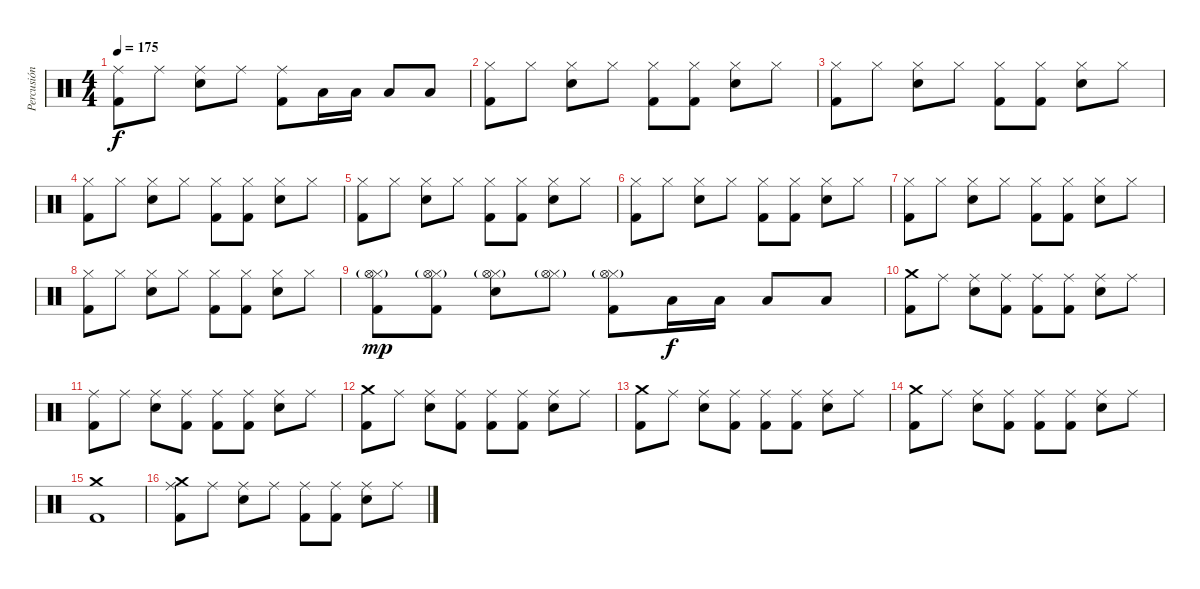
\track ("Percusión" "Percusión") {instrument percussion}
\staff {score}
\articulation defaults
\ts (4 4)
\tempo 175
\clef neutral
\ks c
("Ride (middle)" "Kick (hit) 2").8{dy f} "Ride (middle)".8 ("Ride (middle)" "Electric Snare (hit)").8 "Ride (middle)".8 ("Kick (hit) 2" "Ride (middle)").8 "Low Tom (hit)".16 "Low Floor Tom (hit)".16 "Low Floor Tom (hit)".8 "Low Floor Tom (hit)".8 |
("Hi-Hat (closed)" "Kick (hit) 2").8 "Hi-Hat (closed)".8 ("Hi-Hat (closed)" "Electric Snare (hit)").8 "Hi-Hat (closed)".8 ("Kick (hit) 2" "Hi-Hat (closed)").8 ("Kick (hit) 2" "Hi-Hat (closed)").8 ("Electric Snare (hit)" "Hi-Hat (closed)").8 "Hi-Hat (closed)".8 |
("Hi-Hat (closed)" "Kick (hit) 2").8 "Hi-Hat (closed)".8 ("Hi-Hat (closed)" "Electric Snare (hit)").8 "Hi-Hat (closed)".8 ("Kick (hit) 2" "Hi-Hat (closed)").8 ("Kick (hit) 2" "Hi-Hat (closed)").8 ("Electric Snare (hit)" "Hi-Hat (closed)").8 "Hi-Hat (closed)".8 |
("Hi-Hat (closed)" "Kick (hit) 2").8 "Hi-Hat (closed)".8 ("Hi-Hat (closed)" "Electric Snare (hit)").8 "Hi-Hat (closed)".8 ("Kick (hit) 2" "Hi-Hat (closed)").8 ("Kick (hit) 2" "Hi-Hat (closed)").8 ("Electric Snare (hit)" "Hi-Hat (closed)").8 "Hi-Hat (closed)".8 |
("Hi-Hat (closed)" "Kick (hit) 2").8 "Hi-Hat (closed)".8 ("Hi-Hat (closed)" "Electric Snare (hit)").8 "Hi-Hat (closed)".8 ("Kick (hit) 2" "Hi-Hat (closed)").8 ("Kick (hit) 2" "Hi-Hat (closed)").8 ("Electric Snare (hit)" "Hi-Hat (closed)").8 "Hi-Hat (closed)".8 |
("Hi-Hat (closed)" "Kick (hit) 2").8 "Hi-Hat (closed)".8 ("Hi-Hat (closed)" "Electric Snare (hit)").8 "Hi-Hat (closed)".8 ("Kick (hit) 2" "Hi-Hat (closed)").8 ("Kick (hit) 2" "Hi-Hat (closed)").8 ("Electric Snare (hit)" "Hi-Hat (closed)").8 "Hi-Hat (closed)".8 |
("Hi-Hat (closed)" "Kick (hit) 2").8 "Hi-Hat (closed)".8 ("Hi-Hat (closed)" "Electric Snare (hit)").8 "Hi-Hat (closed)".8 ("Kick (hit) 2" "Hi-Hat (closed)").8 ("Kick (hit) 2" "Hi-Hat (closed)").8 ("Electric Snare (hit)" "Hi-Hat (closed)").8 "Hi-Hat (closed)".8 |
("Hi-Hat (closed)" "Kick (hit) 2").8 "Hi-Hat (closed)".8 ("Hi-Hat (closed)" "Electric Snare (hit)").8 "Hi-Hat (closed)".8 ("Kick (hit) 2" "Hi-Hat (closed)").8 ("Kick (hit) 2" "Hi-Hat (closed)").8 ("Electric Snare (hit)" "Hi-Hat (closed)").8 "Hi-Hat (closed)".8 |
("Hi-Hat (closed)" "Kick (hit) 2" "Hi-Hat (open)"{g}).8{dy mp} ("Hi-Hat (closed)" "Kick (hit) 2" "Hi-Hat (open)"{g}).8 ("Hi-Hat (closed)" "Electric Snare (hit)" "Hi-Hat (open)"{g}).8 ("Hi-Hat (closed)" "Hi-Hat (open)"{g}).8 ("Kick (hit) 2" "Hi-Hat (closed)" "Hi-Hat (open)"{g}).8 "Low Tom (hit)".16{dy f} "Low Floor Tom (hit)".16 "Low Floor Tom (hit)".8 "Low Floor Tom (hit)".8 |
("Crash medium (hit)" "Kick (hit) 2").8 "Ride (middle)".8 ("Ride (middle)" "Electric Snare (hit)").8 ("Ride (middle)" "Kick (hit) 2").8 ("Kick (hit) 2" "Ride (middle)").8 ("Kick (hit) 2" "Ride (middle)").8 ("Electric Snare (hit)" "Ride (middle)").8 "Ride (middle)".8 |
("Ride (middle)" "Kick (hit) 2").8 "Ride (middle)".8 ("Ride (middle)" "Electric Snare (hit)").8 ("Ride (middle)" "Kick (hit) 2").8 ("Kick (hit) 2" "Ride (middle)").8 ("Kick (hit) 2" "Ride (middle)").8 ("Electric Snare (hit)" "Ride (middle)").8 "Ride (middle)".8 |
("Crash medium (hit)" "Kick (hit) 2").8 "Ride (middle)".8 ("Ride (middle)" "Electric Snare (hit)").8 ("Ride (middle)" "Kick (hit) 2").8 ("Kick (hit) 2" "Ride (middle)").8 ("Kick (hit) 2" "Ride (middle)").8 ("Electric Snare (hit)" "Ride (middle)").8 "Ride (middle)".8 |
("Crash medium (hit)" "Kick (hit) 2").8 "Ride (middle)".8 ("Ride (middle)" "Electric Snare (hit)").8 ("Ride (middle)" "Kick (hit) 2").8 ("Kick (hit) 2" "Ride (middle)").8 ("Kick (hit) 2" "Ride (middle)").8 ("Electric Snare (hit)" "Ride (middle)").8 "Ride (middle)".8 |
("Crash medium (hit)" "Kick (hit) 2").8 "Ride (middle)".8 ("Ride (middle)" "Electric Snare (hit)").8 ("Ride (middle)" "Kick (hit) 2").8 ("Kick (hit) 2" "Ride (middle)").8 ("Kick (hit) 2" "Ride (middle)").8 ("Electric Snare (hit)" "Ride (middle)").8 "Ride (middle)".8 |
("Crash medium (hit)" "Kick (hit) 2").1 |
("Ride (middle)" "Kick (hit) 2" "Crash medium (hit)").8 "Ride (middle)".8 ("Ride (middle)" "Electric Snare (hit)").8 "Ride (middle)".8 ("Kick (hit) 2" "Ride (middle)").8 ("Kick (hit) 2" "Ride (middle)").8 ("Electric Snare (hit)" "Ride (middle)").8 "Ride (middle)".8
